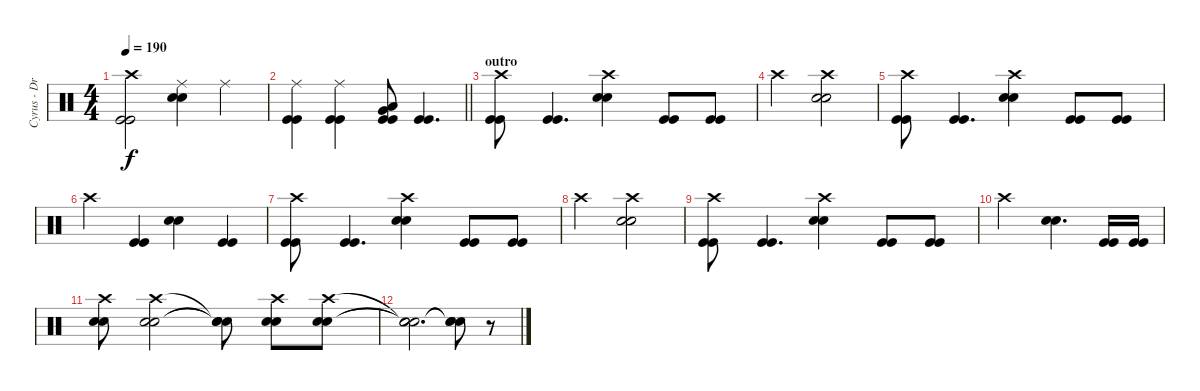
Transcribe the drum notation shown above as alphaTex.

\track ("Cyrus - Drums" "Cyrus - Dr") {instrument percussion}
\staff {score}
\articulation defaults
\ts (4 4)
\tempo 190
\clef neutral
\ks c
("Kick (hit)" "Kick (hit)" "Crash high (hit)").2{dy f} ("Snare (hit) 2" "Snare (hit) 2" "Ride (middle)").4 "Ride (middle)".4 |
\barLineRight lightlight
("Kick (hit)" "Kick (hit)" "Ride (middle)").4 ("Kick (hit)" "Kick (hit)" "Ride (middle)").4 ("Kick (hit)" "Kick (hit)" "Very Low Tom (hit)" "Low Tom (hit)").8 ("Kick (hit)" "Kick (hit)").4{d} |
\section ("" "outro")
("Kick (hit)" "Kick (hit)" "Crash high (hit)").8 ("Kick (hit)" "Kick (hit)").4{d} ("Snare (hit) 2" "Snare (hit) 2" "Crash high (hit)").4 ("Kick (hit)" "Kick (hit)").8 ("Kick (hit)" "Kick (hit)").8 |
"Crash high (hit)".2 ("Snare (hit) 2" "Snare (hit) 2" "Crash high (hit)").2 |
("Kick (hit)" "Kick (hit)" "Crash high (hit)").8 ("Kick (hit)" "Kick (hit)").4{d} ("Snare (hit) 2" "Snare (hit) 2" "Crash high (hit)").4 ("Kick (hit)" "Kick (hit)").8 ("Kick (hit)" "Kick (hit)").8 |
"Crash high (hit)".4 ("Kick (hit)" "Kick (hit)").4 ("Snare (hit) 2" "Snare (hit) 2").4 ("Kick (hit)" "Kick (hit)").4 |
("Kick (hit)" "Kick (hit)" "Crash high (hit)").8 ("Kick (hit)" "Kick (hit)").4{d} ("Snare (hit) 2" "Snare (hit) 2" "Crash high (hit)").4 ("Kick (hit)" "Kick (hit)").8 ("Kick (hit)" "Kick (hit)").8 |
"Crash high (hit)".2 ("Snare (hit) 2" "Snare (hit) 2" "Crash high (hit)").2 |
("Kick (hit)" "Kick (hit)" "Crash high (hit)").8 ("Kick (hit)" "Kick (hit)").4{d} ("Snare (hit) 2" "Snare (hit) 2" "Crash high (hit)").4 ("Kick (hit)" "Kick (hit)").8 ("Kick (hit)" "Kick (hit)").8 |
"Crash high (hit)".2 ("Snare (hit) 2" "Snare (hit) 2").4{d} ("Kick (hit)" "Kick (hit)").16 ("Kick (hit)" "Kick (hit)").16 |
("Snare (hit) 2" "Snare (hit) 2" "Crash high (hit)").8 ("Snare (hit) 2" "Snare (hit) 2" "Crash high (hit)").2 ("Snare (hit)"{t} "Snare (hit)"{t} "Snare (hit)"{t}).8 ("Snare (hit) 2" "Snare (hit) 2" "Crash high (hit)").8 ("Snare (hit) 2" "Snare (hit) 2" "Crash high (hit)").8 |
("Snare (hit)"{t} "Snare (hit)"{t} "Snare (hit)"{t}).2{d} ("Snare (hit)"{t} "Snare (hit)"{t} "Snare (hit)"{t}).8 r.8
